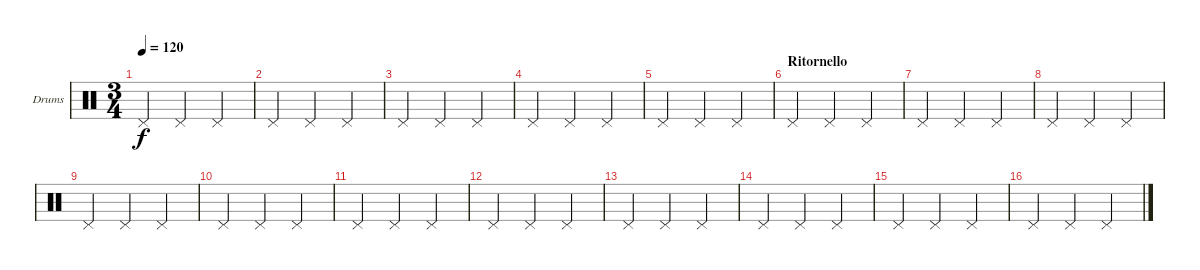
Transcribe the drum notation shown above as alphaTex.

\bracketExtendMode groupsimilarinstruments
\firstSystemTrackNameOrientation horizontal
\otherSystemsTrackNameOrientation horizontal
\track ("Drumkit" "Drums") {instrument percussion}
\staff {score}
\articulation defaults
\ts (3 4)
\tempo 120
\clef neutral
\ks c "Pedal Hi-Hat (hit)".4{dy f} "Pedal Hi-Hat (hit)".4 "Pedal Hi-Hat (hit)".4
|
"Pedal Hi-Hat (hit)".4 "Pedal Hi-Hat (hit)".4 "Pedal Hi-Hat (hit)".4 |
"Pedal Hi-Hat (hit)".4 "Pedal Hi-Hat (hit)".4 "Pedal Hi-Hat (hit)".4 |
"Pedal Hi-Hat (hit)".4 "Pedal Hi-Hat (hit)".4 "Pedal Hi-Hat (hit)".4 |
"Pedal Hi-Hat (hit)".4 "Pedal Hi-Hat (hit)".4 "Pedal Hi-Hat (hit)".4 |
\section ("" "Ritornello")
"Pedal Hi-Hat (hit)".4 "Pedal Hi-Hat (hit)".4 "Pedal Hi-Hat (hit)".4 |
"Pedal Hi-Hat (hit)".4 "Pedal Hi-Hat (hit)".4 "Pedal Hi-Hat (hit)".4 |
"Pedal Hi-Hat (hit)".4 "Pedal Hi-Hat (hit)".4 "Pedal Hi-Hat (hit)".4 |
"Pedal Hi-Hat (hit)".4 "Pedal Hi-Hat (hit)".4 "Pedal Hi-Hat (hit)".4 |
"Pedal Hi-Hat (hit)".4 "Pedal Hi-Hat (hit)".4 "Pedal Hi-Hat (hit)".4 |
"Pedal Hi-Hat (hit)".4 "Pedal Hi-Hat (hit)".4 "Pedal Hi-Hat (hit)".4 |
"Pedal Hi-Hat (hit)".4 "Pedal Hi-Hat (hit)".4 "Pedal Hi-Hat (hit)".4 |
"Pedal Hi-Hat (hit)".4 "Pedal Hi-Hat (hit)".4 "Pedal Hi-Hat (hit)".4 |
"Pedal Hi-Hat (hit)".4 "Pedal Hi-Hat (hit)".4 "Pedal Hi-Hat (hit)".4 |
"Pedal Hi-Hat (hit)".4 "Pedal Hi-Hat (hit)".4 "Pedal Hi-Hat (hit)".4 |
"Pedal Hi-Hat (hit)".4 "Pedal Hi-Hat (hit)".4 "Pedal Hi-Hat (hit)".4
